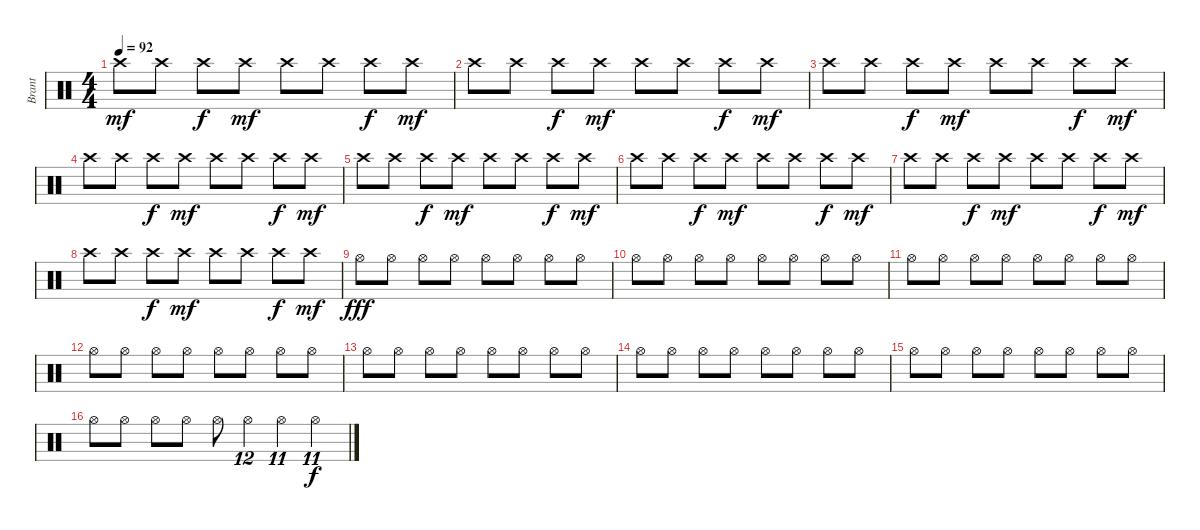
\track ("Brant" "Brant") {instrument percussion}
\staff {score}
\articulation defaults
\ts (4 4)
\tempo 92
\clef neutral
\ks c "Crash high (hit)".8{dy mf} "Crash high (hit)".8 "Crash high (hit)".8{dy f} "Crash high (hit)".8{dy mf} "Crash high (hit)".8 "Crash high (hit)".8 "Crash high (hit)".8{dy f} "Crash high (hit)".8{dy mf}
|
"Crash high (hit)".8 "Crash high (hit)".8 "Crash high (hit)".8{dy f} "Crash high (hit)".8{dy mf} "Crash high (hit)".8 "Crash high (hit)".8 "Crash high (hit)".8{dy f} "Crash high (hit)".8{dy mf} |
"Crash high (hit)".8 "Crash high (hit)".8 "Crash high (hit)".8{dy f} "Crash high (hit)".8{dy mf} "Crash high (hit)".8 "Crash high (hit)".8 "Crash high (hit)".8{dy f} "Crash high (hit)".8{dy mf} |
"Crash high (hit)".8 "Crash high (hit)".8 "Crash high (hit)".8{dy f} "Crash high (hit)".8{dy mf} "Crash high (hit)".8 "Crash high (hit)".8 "Crash high (hit)".8{dy f} "Crash high (hit)".8{dy mf} |
"Crash high (hit)".8 "Crash high (hit)".8 "Crash high (hit)".8{dy f} "Crash high (hit)".8{dy mf} "Crash high (hit)".8 "Crash high (hit)".8 "Crash high (hit)".8{dy f} "Crash high (hit)".8{dy mf} |
"Crash high (hit)".8 "Crash high (hit)".8 "Crash high (hit)".8{dy f} "Crash high (hit)".8{dy mf} "Crash high (hit)".8 "Crash high (hit)".8 "Crash high (hit)".8{dy f} "Crash high (hit)".8{dy mf} |
"Crash high (hit)".8 "Crash high (hit)".8 "Crash high (hit)".8{dy f} "Crash high (hit)".8{dy mf} "Crash high (hit)".8 "Crash high (hit)".8 "Crash high (hit)".8{dy f} "Crash high (hit)".8{dy mf} |
"Crash high (hit)".8 "Crash high (hit)".8 "Crash high (hit)".8{dy f} "Crash high (hit)".8{dy mf} "Crash high (hit)".8 "Crash high (hit)".8 "Crash high (hit)".8{dy f} "Crash high (hit)".8{dy mf} |
"Hi-Hat (open)".8{dy fff} "Hi-Hat (open)".8 "Hi-Hat (open)".8 "Hi-Hat (open)".8 "Hi-Hat (open)".8 "Hi-Hat (open)".8 "Hi-Hat (open)".8 "Hi-Hat (open)".8 |
"Hi-Hat (open)".8 "Hi-Hat (open)".8 "Hi-Hat (open)".8 "Hi-Hat (open)".8 "Hi-Hat (open)".8 "Hi-Hat (open)".8 "Hi-Hat (open)".8 "Hi-Hat (open)".8 |
"Hi-Hat (open)".8 "Hi-Hat (open)".8 "Hi-Hat (open)".8 "Hi-Hat (open)".8 "Hi-Hat (open)".8 "Hi-Hat (open)".8 "Hi-Hat (open)".8 "Hi-Hat (open)".8 |
"Hi-Hat (open)".8 "Hi-Hat (open)".8 "Hi-Hat (open)".8 "Hi-Hat (open)".8 "Hi-Hat (open)".8 "Hi-Hat (open)".8 "Hi-Hat (open)".8 "Hi-Hat (open)".8 |
"Hi-Hat (open)".8 "Hi-Hat (open)".8 "Hi-Hat (open)".8 "Hi-Hat (open)".8 "Hi-Hat (open)".8 "Hi-Hat (open)".8 "Hi-Hat (open)".8 "Hi-Hat (open)".8 |
"Hi-Hat (open)".8 "Hi-Hat (open)".8 "Hi-Hat (open)".8 "Hi-Hat (open)".8 "Hi-Hat (open)".8 "Hi-Hat (open)".8 "Hi-Hat (open)".8 "Hi-Hat (open)".8 |
"Hi-Hat (open)".8 "Hi-Hat (open)".8 "Hi-Hat (open)".8 "Hi-Hat (open)".8 "Hi-Hat (open)".8 "Hi-Hat (open)".8 "Hi-Hat (open)".8 "Hi-Hat (open)".8 |
"Hi-Hat (open)".8 "Hi-Hat (open)".8 "Hi-Hat (open)".8 "Hi-Hat (open)".8 "Hi-Hat (open)".8 "Hi-Hat (open)".4{tu (12 8)} "Hi-Hat (open)".4{tu (11 8)} "Hi-Hat (open)".4{tu (11 8) dy f}
